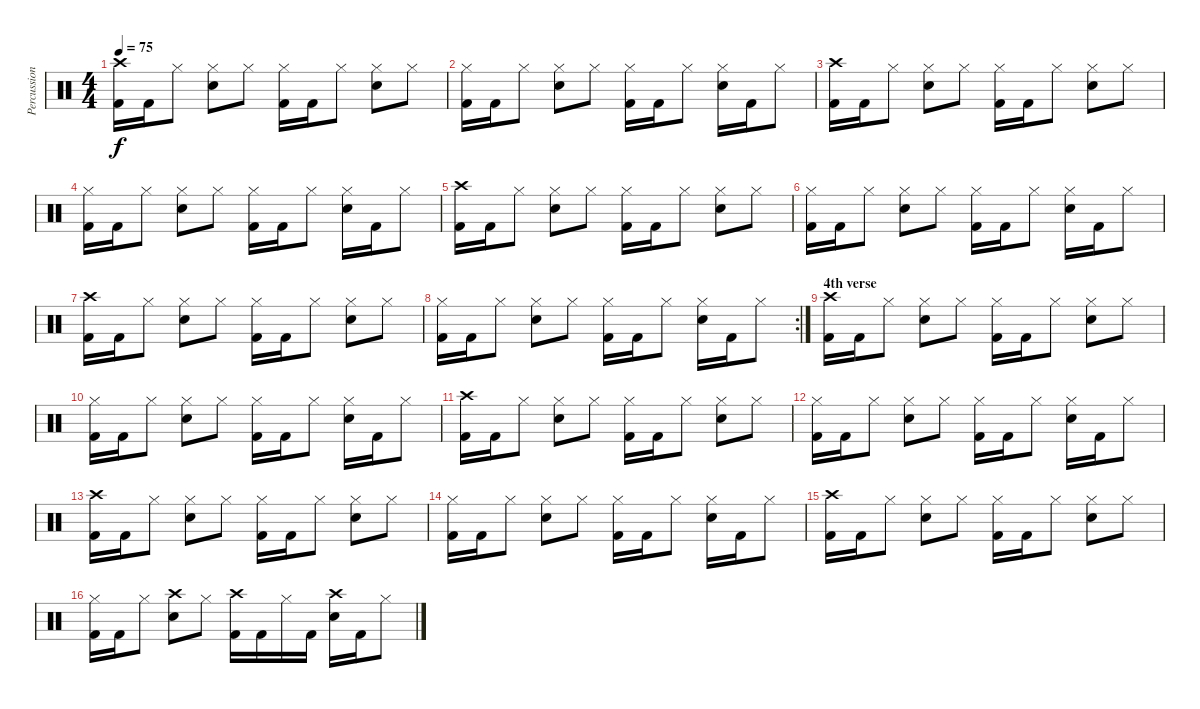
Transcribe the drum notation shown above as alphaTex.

\track ("Percussion" "Percussion") {instrument percussion}
\staff {score}
\articulation defaults
\ts (4 4)
\tempo 75
\clef neutral
\ks c
("Crash high (hit)" "Kick (hit) 2").16{dy f} "Kick (hit) 2".16 "Hi-Hat (closed)".8 ("Hi-Hat (closed)" "Electric Snare (hit)").8 "Hi-Hat (closed)".8 ("Hi-Hat (closed)" "Kick (hit) 2").16 "Kick (hit) 2".16 "Hi-Hat (closed)".8 ("Hi-Hat (closed)" "Electric Snare (hit)").8 "Hi-Hat (closed)".8 |
("Hi-Hat (closed)" "Kick (hit) 2").16 "Kick (hit) 2".16 "Hi-Hat (closed)".8 ("Hi-Hat (closed)" "Electric Snare (hit)").8 "Hi-Hat (closed)".8 ("Hi-Hat (closed)" "Kick (hit) 2").16 "Kick (hit) 2".16 "Hi-Hat (closed)".8 ("Hi-Hat (closed)" "Electric Snare (hit)").16 "Kick (hit) 2".16 "Hi-Hat (closed)".8 |
("Crash high (hit)" "Kick (hit) 2").16 "Kick (hit) 2".16 "Hi-Hat (closed)".8 ("Hi-Hat (closed)" "Electric Snare (hit)").8 "Hi-Hat (closed)".8 ("Hi-Hat (closed)" "Kick (hit) 2").16 "Kick (hit) 2".16 "Hi-Hat (closed)".8 ("Hi-Hat (closed)" "Electric Snare (hit)").8 "Hi-Hat (closed)".8 |
("Hi-Hat (closed)" "Kick (hit) 2").16 "Kick (hit) 2".16 "Hi-Hat (closed)".8 ("Hi-Hat (closed)" "Electric Snare (hit)").8 "Hi-Hat (closed)".8 ("Hi-Hat (closed)" "Kick (hit) 2").16 "Kick (hit) 2".16 "Hi-Hat (closed)".8 ("Hi-Hat (closed)" "Electric Snare (hit)").16 "Kick (hit) 2".16 "Hi-Hat (closed)".8 |
("Crash high (hit)" "Kick (hit) 2").16 "Kick (hit) 2".16 "Hi-Hat (closed)".8 ("Hi-Hat (closed)" "Electric Snare (hit)").8 "Hi-Hat (closed)".8 ("Hi-Hat (closed)" "Kick (hit) 2").16 "Kick (hit) 2".16 "Hi-Hat (closed)".8 ("Hi-Hat (closed)" "Electric Snare (hit)").8 "Hi-Hat (closed)".8 |
("Hi-Hat (closed)" "Kick (hit) 2").16 "Kick (hit) 2".16 "Hi-Hat (closed)".8 ("Hi-Hat (closed)" "Electric Snare (hit)").8 "Hi-Hat (closed)".8 ("Hi-Hat (closed)" "Kick (hit) 2").16 "Kick (hit) 2".16 "Hi-Hat (closed)".8 ("Hi-Hat (closed)" "Electric Snare (hit)").16 "Kick (hit) 2".16 "Hi-Hat (closed)".8 |
("Crash high (hit)" "Kick (hit) 2").16 "Kick (hit) 2".16 "Hi-Hat (closed)".8 ("Hi-Hat (closed)" "Electric Snare (hit)").8 "Hi-Hat (closed)".8 ("Hi-Hat (closed)" "Kick (hit) 2").16 "Kick (hit) 2".16 "Hi-Hat (closed)".8 ("Hi-Hat (closed)" "Electric Snare (hit)").8 "Hi-Hat (closed)".8 |
\rc 2
("Hi-Hat (closed)" "Kick (hit) 2").16 "Kick (hit) 2".16 "Hi-Hat (closed)".8 ("Hi-Hat (closed)" "Electric Snare (hit)").8 "Hi-Hat (closed)".8 ("Hi-Hat (closed)" "Kick (hit) 2").16 "Kick (hit) 2".16 "Hi-Hat (closed)".8 ("Hi-Hat (closed)" "Electric Snare (hit)").16 "Kick (hit) 2".16 "Hi-Hat (closed)".8 |
\section ("" "4th verse")
("Crash high (hit)" "Kick (hit) 2").16 "Kick (hit) 2".16 "Hi-Hat (closed)".8 ("Hi-Hat (closed)" "Electric Snare (hit)").8 "Hi-Hat (closed)".8 ("Hi-Hat (closed)" "Kick (hit) 2").16 "Kick (hit) 2".16 "Hi-Hat (closed)".8 ("Hi-Hat (closed)" "Electric Snare (hit)").8 "Hi-Hat (closed)".8 |
("Hi-Hat (closed)" "Kick (hit) 2").16 "Kick (hit) 2".16 "Hi-Hat (closed)".8 ("Hi-Hat (closed)" "Electric Snare (hit)").8 "Hi-Hat (closed)".8 ("Hi-Hat (closed)" "Kick (hit) 2").16 "Kick (hit) 2".16 "Hi-Hat (closed)".8 ("Hi-Hat (closed)" "Electric Snare (hit)").16 "Kick (hit) 2".16 "Hi-Hat (closed)".8 |
("Crash high (hit)" "Kick (hit) 2").16 "Kick (hit) 2".16 "Hi-Hat (closed)".8 ("Hi-Hat (closed)" "Electric Snare (hit)").8 "Hi-Hat (closed)".8 ("Hi-Hat (closed)" "Kick (hit) 2").16 "Kick (hit) 2".16 "Hi-Hat (closed)".8 ("Hi-Hat (closed)" "Electric Snare (hit)").8 "Hi-Hat (closed)".8 |
("Hi-Hat (closed)" "Kick (hit) 2").16 "Kick (hit) 2".16 "Hi-Hat (closed)".8 ("Hi-Hat (closed)" "Electric Snare (hit)").8 "Hi-Hat (closed)".8 ("Hi-Hat (closed)" "Kick (hit) 2").16 "Kick (hit) 2".16 "Hi-Hat (closed)".8 ("Hi-Hat (closed)" "Electric Snare (hit)").16 "Kick (hit) 2".16 "Hi-Hat (closed)".8 |
("Crash high (hit)" "Kick (hit) 2").16 "Kick (hit) 2".16 "Hi-Hat (closed)".8 ("Hi-Hat (closed)" "Electric Snare (hit)").8 "Hi-Hat (closed)".8 ("Hi-Hat (closed)" "Kick (hit) 2").16 "Kick (hit) 2".16 "Hi-Hat (closed)".8 ("Hi-Hat (closed)" "Electric Snare (hit)").8 "Hi-Hat (closed)".8 |
("Hi-Hat (closed)" "Kick (hit) 2").16 "Kick (hit) 2".16 "Hi-Hat (closed)".8 ("Hi-Hat (closed)" "Electric Snare (hit)").8 "Hi-Hat (closed)".8 ("Hi-Hat (closed)" "Kick (hit) 2").16 "Kick (hit) 2".16 "Hi-Hat (closed)".8 ("Hi-Hat (closed)" "Electric Snare (hit)").16 "Kick (hit) 2".16 "Hi-Hat (closed)".8 |
("Crash high (hit)" "Kick (hit) 2").16 "Kick (hit) 2".16 "Hi-Hat (closed)".8 ("Hi-Hat (closed)" "Electric Snare (hit)").8 "Hi-Hat (closed)".8 ("Hi-Hat (closed)" "Kick (hit) 2").16 "Kick (hit) 2".16 "Hi-Hat (closed)".8 ("Hi-Hat (closed)" "Electric Snare (hit)").8 "Hi-Hat (closed)".8 |
("Hi-Hat (closed)" "Kick (hit) 2").16 "Kick (hit) 2".16 "Hi-Hat (closed)".8 ("Crash high (hit)" "Electric Snare (hit)").8 "Hi-Hat (closed)".8 ("Crash high (hit)" "Kick (hit) 2").16 "Kick (hit) 2".16 "Hi-Hat (closed)".16 "Kick (hit) 2".16 ("Crash high (hit)" "Electric Snare (hit)").16 "Kick (hit) 2".16 "Hi-Hat (closed)".8
